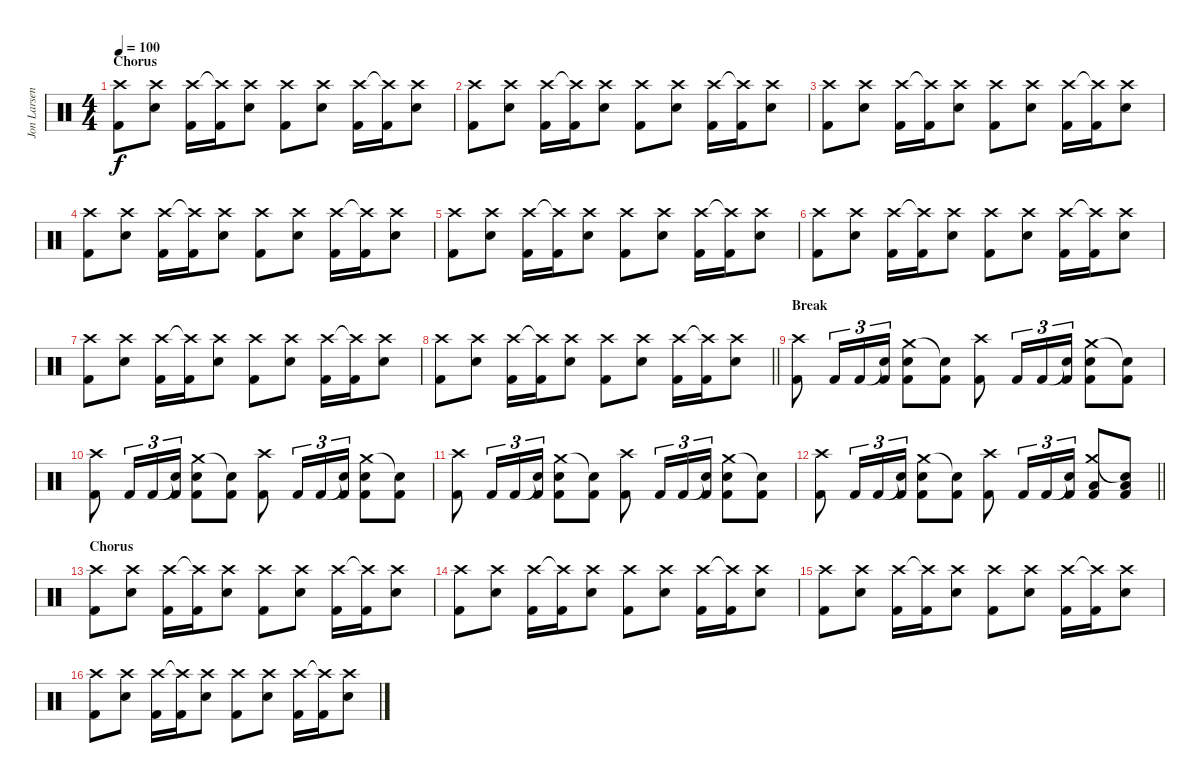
\track ("Jon Larsen" "Jon Larsen") {instrument percussion}
\staff {score}
\articulation defaults
\ts (4 4)
\section ("" "Chorus")
\tempo 100
\clef neutral
\ks c
("Crash high (hit)" "Kick (hit) 2").8{dy f} ("Crash high (hit)" "Snare (hit) 2").8 ("Crash high (hit)" "Kick (hit) 2").16 ("Crash high (hit)"{t} "Kick (hit) 2").16 ("Crash high (hit)" "Snare (hit) 2").8 ("Crash high (hit)" "Kick (hit) 2").8 ("Crash high (hit)" "Snare (hit) 2").8 ("Crash high (hit)" "Kick (hit) 2").16 ("Crash high (hit)"{t} "Kick (hit) 2").16 ("Crash high (hit)" "Snare (hit) 2").8 |
("Crash high (hit)" "Kick (hit) 2").8 ("Crash high (hit)" "Snare (hit) 2").8 ("Crash high (hit)" "Kick (hit) 2").16 ("Crash high (hit)"{t} "Kick (hit) 2").16 ("Crash high (hit)" "Snare (hit) 2").8 ("Crash high (hit)" "Kick (hit) 2").8 ("Crash high (hit)" "Snare (hit) 2").8 ("Crash high (hit)" "Kick (hit) 2").16 ("Crash high (hit)"{t} "Kick (hit) 2").16 ("Crash high (hit)" "Snare (hit) 2").8 |
("Crash high (hit)" "Kick (hit) 2").8 ("Crash high (hit)" "Snare (hit) 2").8 ("Crash high (hit)" "Kick (hit) 2").16 ("Crash high (hit)"{t} "Kick (hit) 2").16 ("Crash high (hit)" "Snare (hit) 2").8 ("Crash high (hit)" "Kick (hit) 2").8 ("Crash high (hit)" "Snare (hit) 2").8 ("Crash high (hit)" "Kick (hit) 2").16 ("Crash high (hit)"{t} "Kick (hit) 2").16 ("Crash high (hit)" "Snare (hit) 2").8 |
("Crash high (hit)" "Kick (hit) 2").8 ("Crash high (hit)" "Snare (hit) 2").8 ("Crash high (hit)" "Kick (hit) 2").16 ("Crash high (hit)"{t} "Kick (hit) 2").16 ("Crash high (hit)" "Snare (hit) 2").8 ("Crash high (hit)" "Kick (hit) 2").8 ("Crash high (hit)" "Snare (hit) 2").8 ("Crash high (hit)" "Kick (hit) 2").16 ("Crash high (hit)"{t} "Kick (hit) 2").16 ("Crash high (hit)" "Snare (hit) 2").8 |
("Crash high (hit)" "Kick (hit) 2").8 ("Crash high (hit)" "Snare (hit) 2").8 ("Crash high (hit)" "Kick (hit) 2").16 ("Crash high (hit)"{t} "Kick (hit) 2").16 ("Crash high (hit)" "Snare (hit) 2").8 ("Crash high (hit)" "Kick (hit) 2").8 ("Crash high (hit)" "Snare (hit) 2").8 ("Crash high (hit)" "Kick (hit) 2").16 ("Crash high (hit)"{t} "Kick (hit) 2").16 ("Crash high (hit)" "Snare (hit) 2").8 |
("Crash high (hit)" "Kick (hit) 2").8 ("Crash high (hit)" "Snare (hit) 2").8 ("Crash high (hit)" "Kick (hit) 2").16 ("Crash high (hit)"{t} "Kick (hit) 2").16 ("Crash high (hit)" "Snare (hit) 2").8 ("Crash high (hit)" "Kick (hit) 2").8 ("Crash high (hit)" "Snare (hit) 2").8 ("Crash high (hit)" "Kick (hit) 2").16 ("Crash high (hit)"{t} "Kick (hit) 2").16 ("Crash high (hit)" "Snare (hit) 2").8 |
("Crash high (hit)" "Kick (hit) 2").8 ("Crash high (hit)" "Snare (hit) 2").8 ("Crash high (hit)" "Kick (hit) 2").16 ("Crash high (hit)"{t} "Kick (hit) 2").16 ("Crash high (hit)" "Snare (hit) 2").8 ("Crash high (hit)" "Kick (hit) 2").8 ("Crash high (hit)" "Snare (hit) 2").8 ("Crash high (hit)" "Kick (hit) 2").16 ("Crash high (hit)"{t} "Kick (hit) 2").16 ("Crash high (hit)" "Snare (hit) 2").8 |
\barLineRight lightlight
("Crash high (hit)" "Kick (hit) 2").8 ("Crash high (hit)" "Snare (hit) 2").8 ("Crash high (hit)" "Kick (hit) 2").16 ("Crash high (hit)"{t} "Kick (hit) 2").16 ("Crash high (hit)" "Snare (hit) 2").8 ("Crash high (hit)" "Kick (hit) 2").8 ("Crash high (hit)" "Snare (hit) 2").8 ("Crash high (hit)" "Kick (hit) 2").16 ("Crash high (hit)"{t} "Kick (hit) 2").16 ("Crash high (hit)" "Snare (hit) 2").8 |
\section ("" "Break")
("Crash high (hit)" "Kick (hit) 2").8 "Kick (hit) 2".16{tu (3 2)} "Kick (hit) 2".16{tu (3 2)} ("Snare (hit)"{t} "Kick (hit) 2").16{tu (3 2)} ("Crash medium (hit)" "Snare (hit) 2" "Kick (hit) 2").8 ("Snare (hit)"{t} "Kick (hit) 2").8 ("Crash high (hit)" "Kick (hit) 2").8 "Kick (hit) 2".16{tu (3 2)} "Kick (hit) 2".16{tu (3 2)} ("Snare (hit)"{t} "Kick (hit) 2").16{tu (3 2)} ("Crash medium (hit)" "Snare (hit) 2" "Kick (hit) 2").8 ("Snare (hit)"{t} "Kick (hit) 2").8 |
("Crash high (hit)" "Kick (hit) 2").8 "Kick (hit) 2".16{tu (3 2)} "Kick (hit) 2".16{tu (3 2)} ("Snare (hit)"{t} "Kick (hit) 2").16{tu (3 2)} ("Crash medium (hit)" "Snare (hit) 2" "Kick (hit) 2").8 ("Snare (hit)"{t} "Kick (hit) 2").8 ("Crash high (hit)" "Kick (hit) 2").8 "Kick (hit) 2".16{tu (3 2)} "Kick (hit) 2".16{tu (3 2)} ("Snare (hit)"{t} "Kick (hit) 2").16{tu (3 2)} ("Crash medium (hit)" "Snare (hit) 2" "Kick (hit) 2").8 ("Snare (hit)"{t} "Kick (hit) 2").8 |
("Crash high (hit)" "Kick (hit) 2").8 "Kick (hit) 2".16{tu (3 2)} "Kick (hit) 2".16{tu (3 2)} ("Snare (hit)"{t} "Kick (hit) 2").16{tu (3 2)} ("Crash medium (hit)" "Snare (hit) 2" "Kick (hit) 2").8 ("Snare (hit)"{t} "Kick (hit) 2").8 ("Crash high (hit)" "Kick (hit) 2").8 "Kick (hit) 2".16{tu (3 2)} "Kick (hit) 2".16{tu (3 2)} ("Snare (hit)"{t} "Kick (hit) 2").16{tu (3 2)} ("Crash medium (hit)" "Snare (hit) 2" "Kick (hit) 2").8 ("Snare (hit)"{t} "Kick (hit) 2").8 |
\barLineRight lightlight
("Crash high (hit)" "Kick (hit) 2").8 "Kick (hit) 2".16{tu (3 2)} "Kick (hit) 2".16{tu (3 2)} ("Snare (hit)"{t} "Kick (hit) 2").16{tu (3 2)} ("Crash medium (hit)" "Snare (hit) 2" "Kick (hit) 2").8 ("Snare (hit)"{t} "Kick (hit) 2").8 ("Crash high (hit)" "Kick (hit) 2").8 "Kick (hit) 2".16{tu (3 2)} "Kick (hit) 2".16{tu (3 2)} ("Snare (hit)"{t} "Kick (hit) 2").16{tu (3 2)} ("Crash medium (hit)" "Low Tom (hit)" "Kick (hit) 2").8 ("Snare (hit)"{t} "Low Tom (hit)" "Kick (hit) 2").8 |
\section ("" "Chorus")
("Crash high (hit)" "Kick (hit) 2").8 ("Crash high (hit)" "Snare (hit) 2").8 ("Crash high (hit)" "Kick (hit) 2").16 ("Crash high (hit)"{t} "Kick (hit) 2").16 ("Crash high (hit)" "Snare (hit) 2").8 ("Crash high (hit)" "Kick (hit) 2").8 ("Crash high (hit)" "Snare (hit) 2").8 ("Crash high (hit)" "Kick (hit) 2").16 ("Crash high (hit)"{t} "Kick (hit) 2").16 ("Crash high (hit)" "Snare (hit) 2").8 |
("Crash high (hit)" "Kick (hit) 2").8 ("Crash high (hit)" "Snare (hit) 2").8 ("Crash high (hit)" "Kick (hit) 2").16 ("Crash high (hit)"{t} "Kick (hit) 2").16 ("Crash high (hit)" "Snare (hit) 2").8 ("Crash high (hit)" "Kick (hit) 2").8 ("Crash high (hit)" "Snare (hit) 2").8 ("Crash high (hit)" "Kick (hit) 2").16 ("Crash high (hit)"{t} "Kick (hit) 2").16 ("Crash high (hit)" "Snare (hit) 2").8 |
("Crash high (hit)" "Kick (hit) 2").8 ("Crash high (hit)" "Snare (hit) 2").8 ("Crash high (hit)" "Kick (hit) 2").16 ("Crash high (hit)"{t} "Kick (hit) 2").16 ("Crash high (hit)" "Snare (hit) 2").8 ("Crash high (hit)" "Kick (hit) 2").8 ("Crash high (hit)" "Snare (hit) 2").8 ("Crash high (hit)" "Kick (hit) 2").16 ("Crash high (hit)"{t} "Kick (hit) 2").16 ("Crash high (hit)" "Snare (hit) 2").8 |
("Crash high (hit)" "Kick (hit) 2").8 ("Crash high (hit)" "Snare (hit) 2").8 ("Crash high (hit)" "Kick (hit) 2").16 ("Crash high (hit)"{t} "Kick (hit) 2").16 ("Crash high (hit)" "Snare (hit) 2").8 ("Crash high (hit)" "Kick (hit) 2").8 ("Crash high (hit)" "Snare (hit) 2").8 ("Crash high (hit)" "Kick (hit) 2").16 ("Crash high (hit)"{t} "Kick (hit) 2").16 ("Crash high (hit)" "Snare (hit) 2").8
